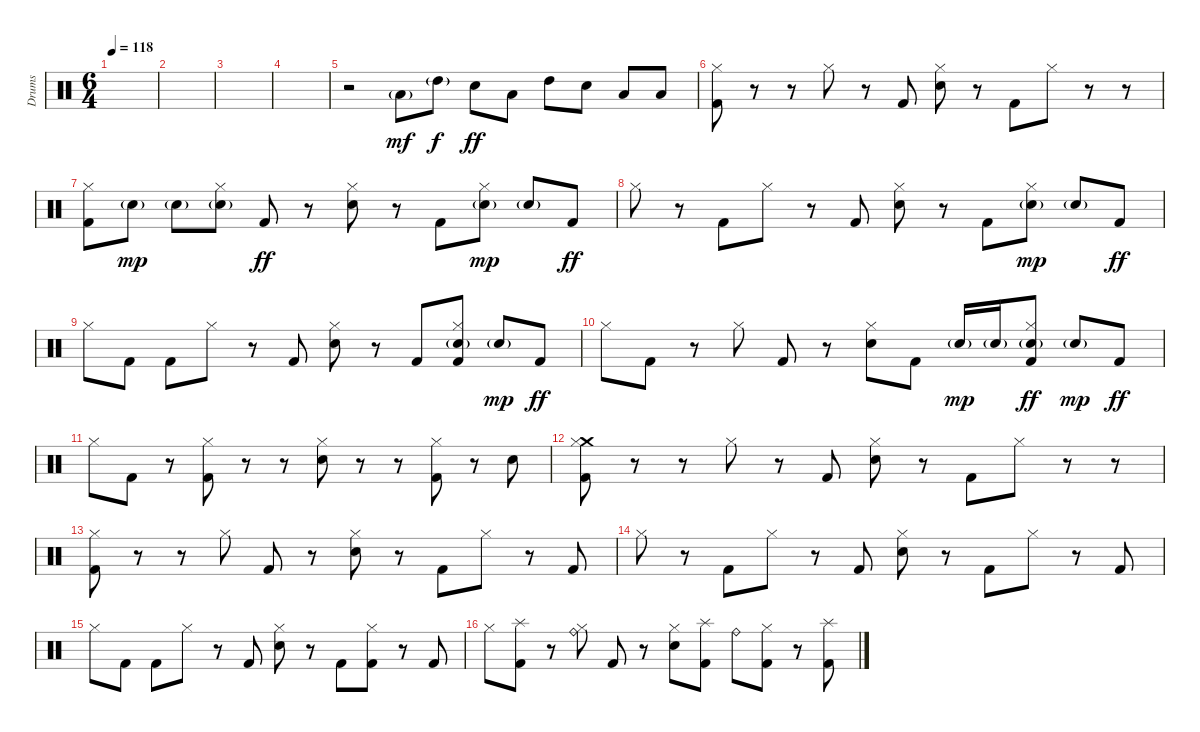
\track ("Drums" "Drums") {instrument percussion}
\staff {score}
\articulation defaults
\ts (6 4)
\tempo 118
\clef neutral
\ks c
|
|
|
|
r.2 "Low Tom (hit)"{g}.8{dy mf} "High Tom (hit)"{g}.8{dy f} "Electric Snare (hit)".8{dy ff} "Low Tom (hit)".8 "High Tom (hit)".8 "Electric Snare (hit)".8 "Low Tom (hit)".8 "Low Floor Tom (hit)".8 |
\section ("" "")
("Hi-Hat (closed)" "Kick (hit) 2").8 r.8 r.8 "Hi-Hat (closed)".8 r.8 "Kick (hit) 2".8 ("Hi-Hat (closed)" "Electric Snare (hit)").8 r.8 "Kick (hit) 2".8 "Hi-Hat (closed)".8 r.8 r.8 |
("Hi-Hat (closed)" "Kick (hit) 2").8 "Electric Snare (hit)"{g}.8{dy mp} "Electric Snare (hit)"{g}.8 ("Hi-Hat (closed)" "Electric Snare (hit)"{g}).8 "Kick (hit) 2".8{dy ff} r.8 ("Hi-Hat (closed)" "Electric Snare (hit)").8 r.8 "Kick (hit) 2".8 ("Hi-Hat (closed)" "Electric Snare (hit)"{g}).8{dy mp} "Electric Snare (hit)"{g}.8 "Kick (hit) 2".8{dy ff} |
"Hi-Hat (closed)".8 r.8 "Kick (hit) 2".8 "Hi-Hat (closed)".8 r.8 "Kick (hit) 2".8 ("Hi-Hat (closed)" "Electric Snare (hit)").8 r.8 "Kick (hit) 2".8 ("Hi-Hat (closed)" "Electric Snare (hit)"{g}).8{dy mp} "Electric Snare (hit)"{g}.8 "Kick (hit) 2".8{dy ff} |
"Hi-Hat (closed)".8 "Kick (hit) 2".8 "Kick (hit) 2".8 "Hi-Hat (closed)".8 r.8 "Kick (hit) 2".8 ("Hi-Hat (closed)" "Electric Snare (hit)").8 r.8 "Kick (hit) 2".8 ("Hi-Hat (closed)" "Electric Snare (hit)"{g} "Kick (hit) 2").8 "Electric Snare (hit)"{g}.8{dy mp} "Kick (hit) 2".8{dy ff} |
"Hi-Hat (closed)".8 "Kick (hit) 2".8 r.8 "Hi-Hat (closed)".8 "Kick (hit) 2".8 r.8 ("Hi-Hat (closed)" "Electric Snare (hit)").8 "Kick (hit) 2".8 "Electric Snare (hit)"{g}.16{dy mp} "Electric Snare (hit)"{g}.16 ("Hi-Hat (closed)" "Electric Snare (hit)"{g} "Kick (hit) 2").8{dy ff} "Electric Snare (hit)"{g}.8{dy mp} "Kick (hit) 2".8{dy ff} |
"Hi-Hat (closed)".8 "Kick (hit) 2".8 r.8 ("Hi-Hat (closed)" "Kick (hit) 2").8 r.8 r.8 ("Hi-Hat (closed)" "Electric Snare (hit)").8 r.8 r.8 ("Hi-Hat (closed)" "Kick (hit) 2").8 r.8 "Electric Snare (hit)".8 |
("Crash medium (hit)" "Hi-Hat (closed)" "Kick (hit) 2").8 r.8 r.8 "Hi-Hat (closed)".8 r.8 "Kick (hit) 2".8 ("Hi-Hat (closed)" "Electric Snare (hit)").8 r.8 "Kick (hit) 2".8 "Hi-Hat (closed)".8 r.8 r.8 |
("Hi-Hat (closed)" "Kick (hit) 2").8 r.8 r.8 "Hi-Hat (closed)".8 "Kick (hit) 2".8 r.8 ("Hi-Hat (closed)" "Electric Snare (hit)").8 r.8 "Kick (hit) 2".8 "Hi-Hat (closed)".8 r.8 "Kick (hit) 2".8 |
"Hi-Hat (closed)".8 r.8 "Kick (hit) 2".8 "Hi-Hat (closed)".8 r.8 "Kick (hit) 2".8 ("Hi-Hat (closed)" "Electric Snare (hit)").8 r.8 "Kick (hit) 2".8 "Hi-Hat (closed)".8 r.8 "Kick (hit) 2".8 |
"Hi-Hat (closed)".8 "Kick (hit) 2".8 "Kick (hit) 2".8 "Hi-Hat (closed)".8 r.8 "Kick (hit) 2".8 ("Hi-Hat (closed)" "Electric Snare (hit)").8 r.8 "Kick (hit) 2".8 ("Hi-Hat (closed)" "Kick (hit) 2").8 r.8 "Kick (hit) 2".8 |
"Hi-Hat (closed)".8 ("Splash (hit)" "Kick (hit) 2").8 r.8 ("Ride (bell)" "Hi-Hat (closed)").8 "Kick (hit) 2".8 r.8 ("Hi-Hat (closed)" "Electric Snare (hit)").8 ("Splash (hit)" "Kick (hit) 2").8 "Ride (bell)".8 ("Hi-Hat (closed)" "Kick (hit) 2").8 r.8 ("Splash (hit)" "Kick (hit) 2").8
